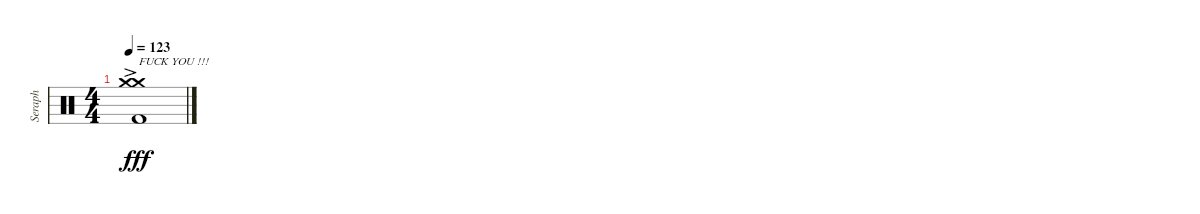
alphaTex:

\track ("Seraph" "Seraph") {instrument percussion}
\staff {score}
\articulation defaults
\ts (4 4)
\tempo 123
\clef neutral
\ks c
("Kick (hit) 2"{ac} "Crash medium (hit)"{ac} "Crash medium (hit)").1{txt "FUCK YOU !!!" dy fff}
